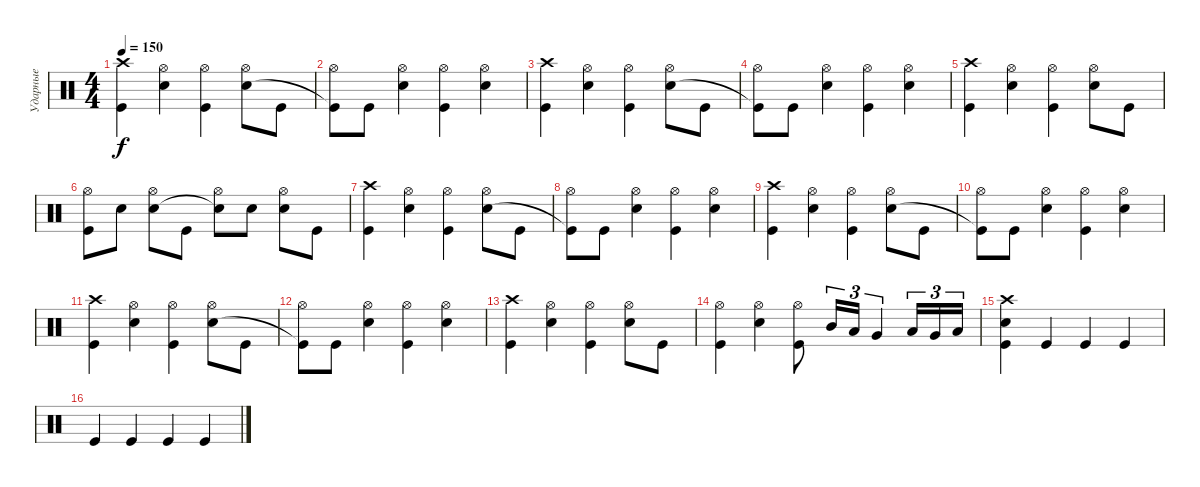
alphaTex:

\track ("Ударные" "Ударные") {instrument percussion}
\staff {score}
\articulation defaults
\ts (4 4)
\tempo 150
\clef neutral
\ks c
("Crash high (hit)" "Kick (hit)").4{dy f} ("Hi-Hat (open)" "Snare (hit) 2").4 ("Hi-Hat (open)" "Kick (hit)").4 ("Hi-Hat (open)" "Snare (hit) 2").8 "Kick (hit)".8 |
("Hi-Hat (open)" "Kick (hit)"{t}).8 "Kick (hit)".8 ("Hi-Hat (open)" "Snare (hit) 2").4 ("Hi-Hat (open)" "Kick (hit)").4 ("Hi-Hat (open)" "Snare (hit) 2").4 |
("Crash high (hit)" "Kick (hit)").4 ("Hi-Hat (open)" "Snare (hit) 2").4 ("Hi-Hat (open)" "Kick (hit)").4 ("Hi-Hat (open)" "Snare (hit) 2").8 "Kick (hit)".8 |
("Hi-Hat (open)" "Kick (hit)"{t}).8 "Kick (hit)".8 ("Hi-Hat (open)" "Snare (hit) 2").4 ("Hi-Hat (open)" "Kick (hit)").4 ("Hi-Hat (open)" "Snare (hit) 2").4 |
("Crash high (hit)" "Kick (hit)").4 ("Hi-Hat (open)" "Snare (hit) 2").4 ("Hi-Hat (open)" "Kick (hit)").4 ("Hi-Hat (open)" "Snare (hit) 2").8 "Kick (hit)".8 |
("Hi-Hat (open)" "Kick (hit)").8 "Snare (hit) 2".8 ("Hi-Hat (open)" "Snare (hit) 2").8 "Kick (hit)".8 ("Hi-Hat (open)" "Snare (hit)"{t}).8 "Snare (hit) 2".8 ("Hi-Hat (open)" "Snare (hit) 2").8 "Kick (hit)".8 |
("Crash high (hit)" "Kick (hit)").4 ("Hi-Hat (open)" "Snare (hit) 2").4 ("Hi-Hat (open)" "Kick (hit)").4 ("Hi-Hat (open)" "Snare (hit) 2").8 "Kick (hit)".8 |
("Hi-Hat (open)" "Kick (hit)"{t}).8 "Kick (hit)".8 ("Hi-Hat (open)" "Snare (hit) 2").4 ("Hi-Hat (open)" "Kick (hit)").4 ("Hi-Hat (open)" "Snare (hit) 2").4 |
("Crash high (hit)" "Kick (hit)").4 ("Hi-Hat (open)" "Snare (hit) 2").4 ("Hi-Hat (open)" "Kick (hit)").4 ("Hi-Hat (open)" "Snare (hit) 2").8 "Kick (hit)".8 |
("Hi-Hat (open)" "Kick (hit)"{t}).8 "Kick (hit)".8 ("Hi-Hat (open)" "Snare (hit) 2").4 ("Hi-Hat (open)" "Kick (hit)").4 ("Hi-Hat (open)" "Snare (hit) 2").4 |
("Crash high (hit)" "Kick (hit)").4 ("Hi-Hat (open)" "Snare (hit) 2").4 ("Hi-Hat (open)" "Kick (hit)").4 ("Hi-Hat (open)" "Snare (hit) 2").8 "Kick (hit)".8 |
("Hi-Hat (open)" "Kick (hit)"{t}).8 "Kick (hit)".8 ("Hi-Hat (open)" "Snare (hit) 2").4 ("Hi-Hat (open)" "Kick (hit)").4 ("Hi-Hat (open)" "Snare (hit) 2").4 |
("Crash high (hit)" "Kick (hit)").4 ("Hi-Hat (open)" "Snare (hit) 2").4 ("Hi-Hat (open)" "Kick (hit)").4 ("Hi-Hat (open)" "Snare (hit) 2").8 "Kick (hit)".8 |
("Hi-Hat (open)" "Kick (hit)").4 ("Hi-Hat (open)" "Snare (hit) 2").4 ("Hi-Hat (open)" "Kick (hit)").8 "Mid Tom (hit)".16{tu (3 2)} "Low Tom (hit)".16{tu (3 2)} "Very Low Tom (hit)".4{tu (3 2)} "Low Tom (hit)".16{tu (3 2)} "Very Low Tom (hit)".16{tu (3 2)} "Low Floor Tom (hit)".16{tu (3 2)} |
("Crash high (hit)" "Snare (hit) 2" "Kick (hit)").4 "Kick (hit)".4 "Kick (hit)".4 "Kick (hit)".4 |
"Kick (hit)".4 "Kick (hit)".4 "Kick (hit)".4 "Kick (hit)".4
